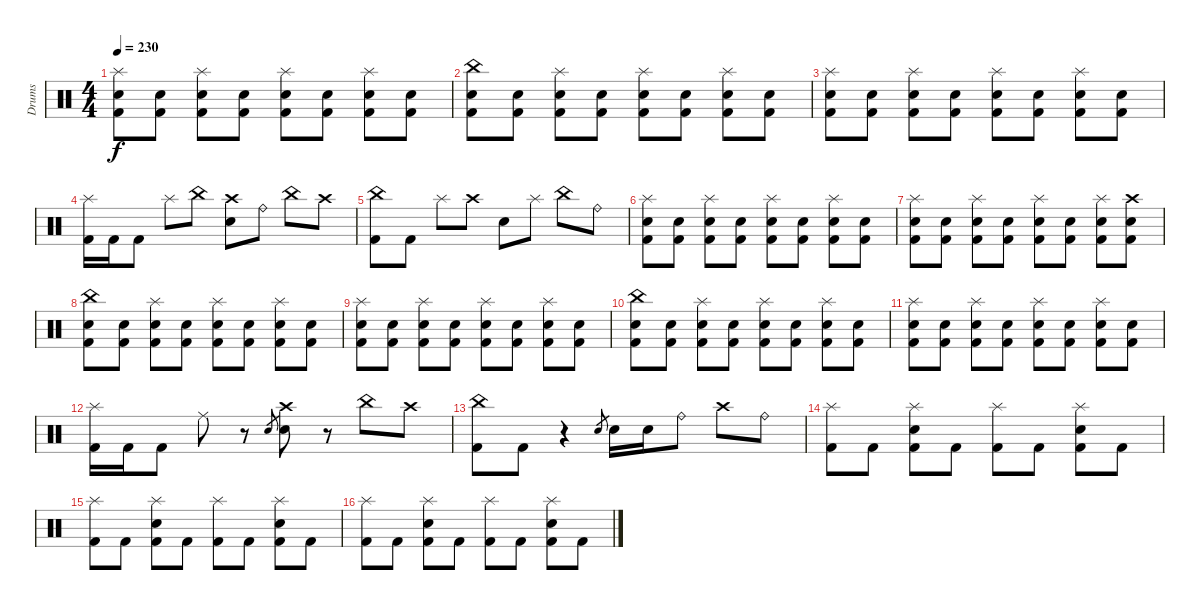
\track ("Drums" "Drums") {instrument percussion}
\staff {score}
\articulation defaults
\ts (4 4)
\tempo 230
\clef neutral
\ks c
("Splash (hit)" "Electric Snare (hit)" "Kick (hit) 2").8{dy f} ("Electric Snare (hit)" "Kick (hit) 2").8 ("Splash (hit)" "Electric Snare (hit)" "Kick (hit) 2").8 ("Electric Snare (hit)" "Kick (hit) 2").8 ("Splash (hit)" "Electric Snare (hit)" "Kick (hit) 2").8 ("Electric Snare (hit)" "Kick (hit) 2").8 ("Splash (hit)" "Electric Snare (hit)" "Kick (hit) 2").8 ("Electric Snare (hit)" "Kick (hit) 2").8 |
("China (hit)" "Electric Snare (hit)" "Kick (hit) 2").8 ("Electric Snare (hit)" "Kick (hit) 2").8 ("Splash (hit)" "Electric Snare (hit)" "Kick (hit) 2").8 ("Electric Snare (hit)" "Kick (hit) 2").8 ("Splash (hit)" "Electric Snare (hit)" "Kick (hit) 2").8 ("Electric Snare (hit)" "Kick (hit) 2").8 ("Splash (hit)" "Electric Snare (hit)" "Kick (hit) 2").8 ("Electric Snare (hit)" "Kick (hit) 2").8 |
("Splash (hit)" "Electric Snare (hit)" "Kick (hit) 2").8 ("Electric Snare (hit)" "Kick (hit) 2").8 ("Splash (hit)" "Electric Snare (hit)" "Kick (hit) 2").8 ("Electric Snare (hit)" "Kick (hit) 2").8 ("Splash (hit)" "Electric Snare (hit)" "Kick (hit) 2").8 ("Electric Snare (hit)" "Kick (hit) 2").8 ("Splash (hit)" "Electric Snare (hit)" "Kick (hit) 2").8 ("Electric Snare (hit)" "Kick (hit) 2").8 |
("Splash (hit)" "Kick (hit) 2").16 "Kick (hit) 2".16 "Kick (hit) 2".8 "Splash (hit)".8 "China (hit)".8 ("Crash high (hit)" "Electric Snare (hit)").8 "Ride (bell)".8 "China (hit)".8 "Crash high (hit)".8 |
("China (hit)" "Kick (hit) 2").8 "Kick (hit) 2".8 "Splash (hit)".8 "Crash high (hit)".8 "Electric Snare (hit)".8 "Splash (hit)".8 "China (hit)".8 "Ride (bell)".8 |
("Splash (hit)" "Electric Snare (hit)" "Kick (hit) 2").8 ("Electric Snare (hit)" "Kick (hit) 2").8 ("Splash (hit)" "Electric Snare (hit)" "Kick (hit) 2").8 ("Electric Snare (hit)" "Kick (hit) 2").8 ("Splash (hit)" "Electric Snare (hit)" "Kick (hit) 2").8 ("Electric Snare (hit)" "Kick (hit) 2").8 ("Splash (hit)" "Electric Snare (hit)" "Kick (hit) 2").8 ("Electric Snare (hit)" "Kick (hit) 2").8 |
("Splash (hit)" "Electric Snare (hit)" "Kick (hit) 2").8 ("Electric Snare (hit)" "Kick (hit) 2").8 ("Splash (hit)" "Electric Snare (hit)" "Kick (hit) 2").8 ("Electric Snare (hit)" "Kick (hit) 2").8 ("Splash (hit)" "Electric Snare (hit)" "Kick (hit) 2").8 ("Electric Snare (hit)" "Kick (hit) 2").8 ("Splash (hit)" "Electric Snare (hit)" "Kick (hit) 2").8 ("Crash high (hit)" "Electric Snare (hit)" "Kick (hit) 2").8 |
("China (hit)" "Electric Snare (hit)" "Kick (hit) 2").8 ("Electric Snare (hit)" "Kick (hit) 2").8 ("Splash (hit)" "Electric Snare (hit)" "Kick (hit) 2").8 ("Electric Snare (hit)" "Kick (hit) 2").8 ("Splash (hit)" "Electric Snare (hit)" "Kick (hit) 2").8 ("Electric Snare (hit)" "Kick (hit) 2").8 ("Splash (hit)" "Electric Snare (hit)" "Kick (hit) 2").8 ("Electric Snare (hit)" "Kick (hit) 2").8 |
("Splash (hit)" "Electric Snare (hit)" "Kick (hit) 2").8 ("Electric Snare (hit)" "Kick (hit) 2").8 ("Splash (hit)" "Electric Snare (hit)" "Kick (hit) 2").8 ("Electric Snare (hit)" "Kick (hit) 2").8 ("Splash (hit)" "Electric Snare (hit)" "Kick (hit) 2").8 ("Electric Snare (hit)" "Kick (hit) 2").8 ("Splash (hit)" "Electric Snare (hit)" "Kick (hit) 2").8 ("Electric Snare (hit)" "Kick (hit) 2").8 |
("China (hit)" "Electric Snare (hit)" "Kick (hit) 2").8 ("Electric Snare (hit)" "Kick (hit) 2").8 ("Splash (hit)" "Electric Snare (hit)" "Kick (hit) 2").8 ("Electric Snare (hit)" "Kick (hit) 2").8 ("Splash (hit)" "Electric Snare (hit)" "Kick (hit) 2").8 ("Electric Snare (hit)" "Kick (hit) 2").8 ("Splash (hit)" "Electric Snare (hit)" "Kick (hit) 2").8 ("Electric Snare (hit)" "Kick (hit) 2").8 |
("Splash (hit)" "Electric Snare (hit)" "Kick (hit) 2").8 ("Electric Snare (hit)" "Kick (hit) 2").8 ("Splash (hit)" "Electric Snare (hit)" "Kick (hit) 2").8 ("Electric Snare (hit)" "Kick (hit) 2").8 ("Splash (hit)" "Electric Snare (hit)" "Kick (hit) 2").8 ("Electric Snare (hit)" "Kick (hit) 2").8 ("Splash (hit)" "Electric Snare (hit)" "Kick (hit) 2").8 ("Electric Snare (hit)" "Kick (hit) 2").8 |
("Splash (hit)" "Kick (hit) 2").16 "Kick (hit) 2".16 "Kick (hit) 2".8 "Ride (middle)".8 r.8 "Electric Snare (hit)".8{gr} ("Crash high (hit)" "Electric Snare (hit)").8 r.8 "China (hit)".8 "Crash high (hit)".8 |
("China (hit)" "Kick (hit) 2").8 "Kick (hit) 2".8 r.4 "Electric Snare (hit)".8{gr} "Electric Snare (hit)".16 "Electric Snare (hit)".16 "Ride (bell)".8 "Crash high (hit)".8 "Ride (bell)".8 |
\section ("" "")
("Splash (hit)" "Kick (hit) 2").8 "Kick (hit) 2".8 ("Splash (hit)" "Electric Snare (hit)" "Kick (hit) 2").8 "Kick (hit) 2".8 ("Splash (hit)" "Kick (hit) 2").8 "Kick (hit) 2".8 ("Splash (hit)" "Electric Snare (hit)" "Kick (hit) 2").8 "Kick (hit) 2".8 |
("Splash (hit)" "Kick (hit) 2").8 "Kick (hit) 2".8 ("Splash (hit)" "Electric Snare (hit)" "Kick (hit) 2").8 "Kick (hit) 2".8 ("Splash (hit)" "Kick (hit) 2").8 "Kick (hit) 2".8 ("Splash (hit)" "Electric Snare (hit)" "Kick (hit) 2").8 "Kick (hit) 2".8 |
("Splash (hit)" "Kick (hit) 2").8 "Kick (hit) 2".8 ("Splash (hit)" "Electric Snare (hit)" "Kick (hit) 2").8 "Kick (hit) 2".8 ("Splash (hit)" "Kick (hit) 2").8 "Kick (hit) 2".8 ("Splash (hit)" "Electric Snare (hit)" "Kick (hit) 2").8 "Kick (hit) 2".8
